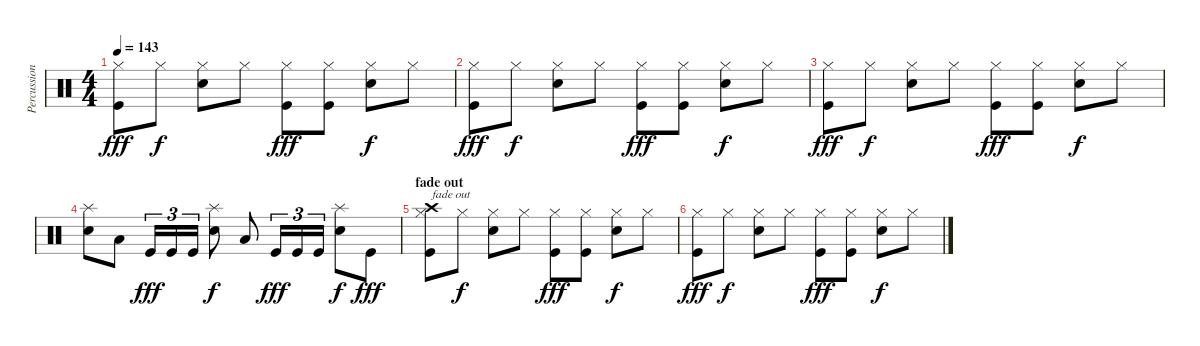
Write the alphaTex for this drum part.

\track ("Percussion" "Percussion") {instrument percussion}
\staff {score}
\articulation defaults
\ts (4 4)
\tempo 143
\clef neutral
\ks c
("Kick (hit)" "Hi-Hat (closed)").8{dy fff} "Hi-Hat (closed)".8{dy f} ("Electric Snare (hit)" "Hi-Hat (closed)").8 "Hi-Hat (closed)".8 ("Kick (hit)" "Hi-Hat (closed)").8{dy fff} ("Kick (hit)" "Hi-Hat (closed)").8 ("Electric Snare (hit)" "Hi-Hat (closed)").8{dy f} "Hi-Hat (closed)".8 |
("Kick (hit)" "Hi-Hat (closed)").8{dy fff} "Hi-Hat (closed)".8{dy f} ("Electric Snare (hit)" "Hi-Hat (closed)").8 "Hi-Hat (closed)".8 ("Kick (hit)" "Hi-Hat (closed)").8{dy fff} ("Kick (hit)" "Hi-Hat (closed)").8 ("Electric Snare (hit)" "Hi-Hat (closed)").8{dy f} "Hi-Hat (closed)".8 |
("Kick (hit)" "Hi-Hat (closed)").8{dy fff} "Hi-Hat (closed)".8{dy f} ("Electric Snare (hit)" "Hi-Hat (closed)").8 "Hi-Hat (closed)".8 ("Kick (hit)" "Hi-Hat (closed)").8{dy fff} ("Kick (hit)" "Hi-Hat (closed)").8 ("Electric Snare (hit)" "Hi-Hat (closed)").8{dy f} "Hi-Hat (closed)".8 |
("Splash (hit)" "Electric Snare (hit)").8 "Low Floor Tom (hit)".8 "Kick (hit)".16{tu (3 2) dy fff} "Kick (hit)".16{tu (3 2)} "Kick (hit)".16{tu (3 2)} ("Splash (hit)" "Electric Snare (hit)").8{dy f} "Low Floor Tom (hit)".8 "Kick (hit)".16{tu (3 2) dy fff} "Kick (hit)".16{tu (3 2)} "Kick (hit)".16{tu (3 2)} ("Splash (hit)" "Electric Snare (hit)").8{dy f} "Kick (hit)".8{dy fff} |
\section ("" "fade out")
("Crash high (hit)" "Kick (hit)" "Hi-Hat (closed)").8{txt "fade out"} "Hi-Hat (closed)".8{dy f} ("Electric Snare (hit)" "Hi-Hat (closed)").8 "Hi-Hat (closed)".8 ("Kick (hit)" "Hi-Hat (closed)").8{dy fff} ("Kick (hit)" "Hi-Hat (closed)").8 ("Electric Snare (hit)" "Hi-Hat (closed)").8{dy f} "Hi-Hat (closed)".8 |
("Kick (hit)" "Hi-Hat (closed)").8{dy fff} "Hi-Hat (closed)".8{dy f} ("Electric Snare (hit)" "Hi-Hat (closed)").8 "Hi-Hat (closed)".8 ("Kick (hit)" "Hi-Hat (closed)").8{dy fff} ("Kick (hit)" "Hi-Hat (closed)").8 ("Electric Snare (hit)" "Hi-Hat (closed)").8{dy f} "Hi-Hat (closed)".8
